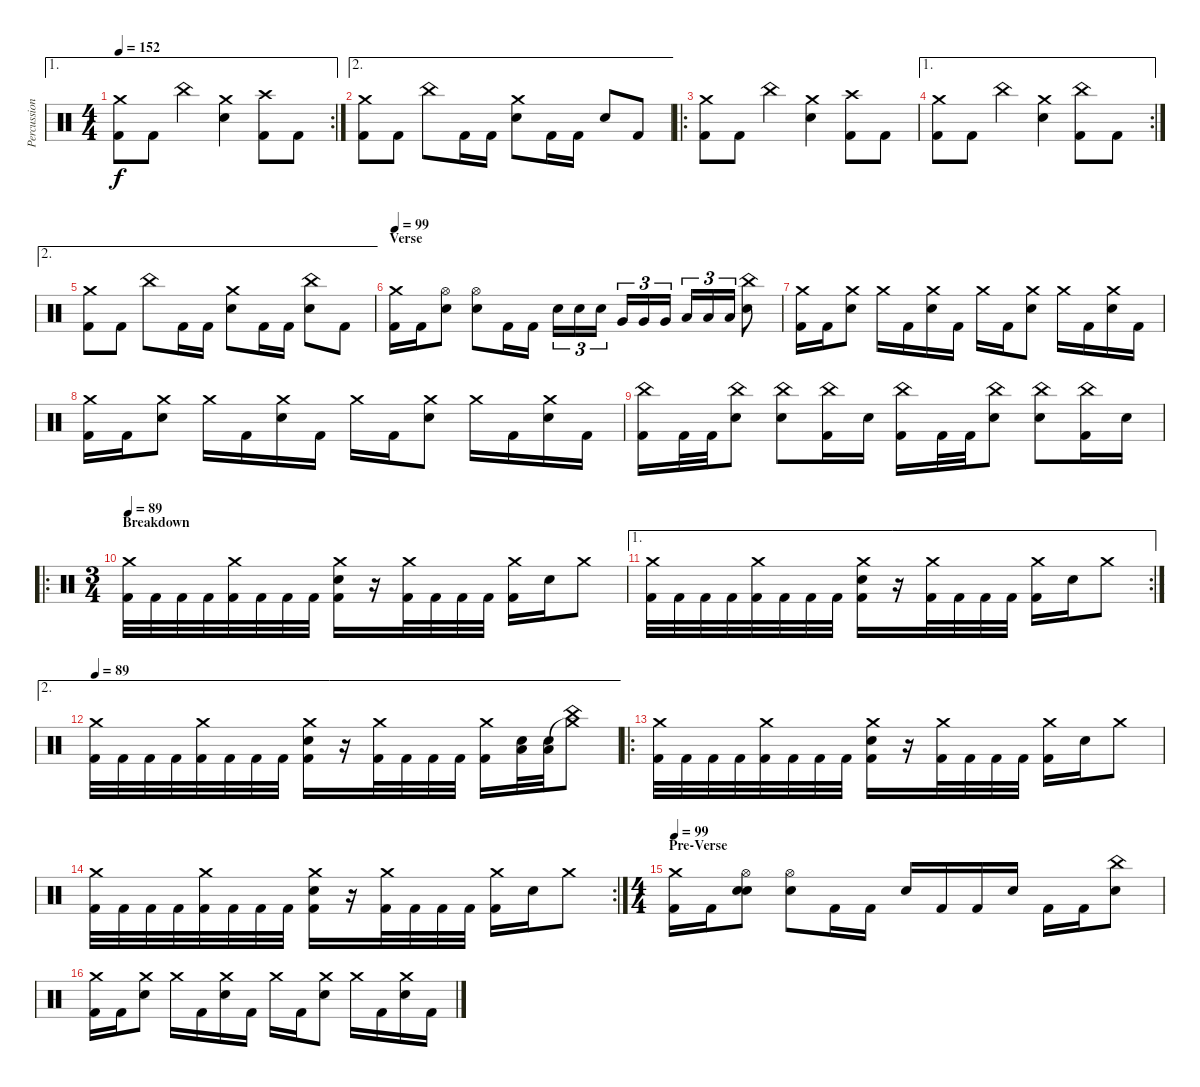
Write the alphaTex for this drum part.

\track ("Percussion" "Percussion") {instrument percussion}
\staff {score}
\articulation defaults
\ae 1
\rc 2
\ts (4 4)
\tempo 152
\clef neutral
\ks c
("Crash medium (hit)" "Kick (hit) 2").8{dy f} "Kick (hit) 2".8 "China (hit)".4 ("Crash medium (hit)" "Electric Snare (hit)").4 ("Crash high (hit)" "Kick (hit) 2").8 "Kick (hit) 2".8 |
\ae 2
("Crash medium (hit)" "Kick (hit) 2").8 "Kick (hit) 2".8 "China (hit)".8 "Kick (hit) 2".16 "Kick (hit) 2".16 ("Crash medium (hit)" "Electric Snare (hit)").8 "Kick (hit) 2".16 "Kick (hit) 2".16 "Electric Snare (hit)".8 "Kick (hit) 2".8 |
\ro
("Crash medium (hit)" "Kick (hit) 2").8 "Kick (hit) 2".8 "China (hit)".4 ("Crash medium (hit)" "Electric Snare (hit)").4 ("Crash high (hit)" "Kick (hit) 2").8 "Kick (hit) 2".8 |
\ae 1
\rc 2
("Crash medium (hit)" "Kick (hit) 2").8 "Kick (hit) 2".8 "China (hit)".4 ("Crash medium (hit)" "Electric Snare (hit)").4 ("China (hit)" "Kick (hit) 2").8 "Kick (hit) 2".8 |
\ae 2
("Crash medium (hit)" "Kick (hit) 2").8 "Kick (hit) 2".8 "China (hit)".8 "Kick (hit) 2".16 "Kick (hit) 2".16 ("Crash medium (hit)" "Electric Snare (hit)").8 "Kick (hit) 2".16 "Kick (hit) 2".16 ("China (hit)" "Electric Snare (hit)").8 "Kick (hit) 2".8 |
\section ("" "Verse")
\tempo 198
\tempo 99
("Crash medium (hit)" "Kick (hit) 2").16 "Kick (hit) 2".16 ("Hi-Hat (open)" "Electric Snare (hit)").8 ("Hi-Hat (open)" "Electric Snare (hit)").8 "Kick (hit) 2".16 "Kick (hit) 2".16 "Electric Snare (hit)".16{tu (3 2)} "Electric Snare (hit)".16{tu (3 2)} "Electric Snare (hit)".16{tu (3 2)} "Very Low Tom (hit)".16{tu (3 2)} "Very Low Tom (hit)".16{tu (3 2)} "Very Low Tom (hit)".16{tu (3 2)} "Low Floor Tom (hit)".16{tu (3 2)} "Low Floor Tom (hit)".16{tu (3 2)} "Low Floor Tom (hit)".16{tu (3 2)} ("China (hit)" "Electric Snare (hit)").8 |
("Crash medium (hit)" "Kick (hit) 2").16 "Kick (hit) 2".16 ("Crash medium (hit)" "Electric Snare (hit)").8 "Crash medium (hit)".16 "Kick (hit) 2".16 ("Crash medium (hit)" "Electric Snare (hit)").16 "Kick (hit) 2".16 "Crash medium (hit)".16 "Kick (hit) 2".16 ("Crash medium (hit)" "Electric Snare (hit)").8 "Crash medium (hit)".16 "Kick (hit) 2".16 ("Crash medium (hit)" "Electric Snare (hit)").16 "Kick (hit) 2".16 |
("Crash medium (hit)" "Kick (hit) 2").16 "Kick (hit) 2".16 ("Crash medium (hit)" "Electric Snare (hit)").8 "Crash medium (hit)".16 "Kick (hit) 2".16 ("Crash medium (hit)" "Electric Snare (hit)").16 "Kick (hit) 2".16 "Crash medium (hit)".16 "Kick (hit) 2".16 ("Crash medium (hit)" "Electric Snare (hit)").8 "Crash medium (hit)".16 "Kick (hit) 2".16 ("Crash medium (hit)" "Electric Snare (hit)").16 "Kick (hit) 2".16 |
("China (hit)" "Kick (hit) 2").16 "Kick (hit) 2".32 "Kick (hit) 2".32 ("China (hit)" "Electric Snare (hit)").8 ("China (hit)" "Electric Snare (hit)").8 ("China (hit)" "Kick (hit) 2").16 "Electric Snare (hit)".16 ("China (hit)" "Kick (hit) 2").16 "Kick (hit) 2".32 "Kick (hit) 2".32 ("China (hit)" "Electric Snare (hit)").8 ("China (hit)" "Electric Snare (hit)").8 ("China (hit)" "Kick (hit) 2").16 "Electric Snare (hit)".16 |
\ro
\ts (3 4)
\section ("" "Breakdown")
\tempo 89
("Crash medium (hit)" "Kick (hit) 2").32 "Kick (hit) 2".32 "Kick (hit) 2".32 "Kick (hit) 2".32 ("Crash medium (hit)" "Kick (hit) 2").32 "Kick (hit) 2".32 "Kick (hit) 2".32 "Kick (hit) 2".32 ("Crash medium (hit)" "Electric Snare (hit)" "Kick (hit) 2").16 r.16 ("Crash medium (hit)" "Kick (hit) 2").32 "Kick (hit) 2".32 "Kick (hit) 2".32 "Kick (hit) 2".32 ("Crash medium (hit)" "Kick (hit) 2").16 "Electric Snare (hit)".16 "Crash medium (hit)".8 |
\ae 1
\rc 2
("Crash medium (hit)" "Kick (hit) 2").32 "Kick (hit) 2".32 "Kick (hit) 2".32 "Kick (hit) 2".32 ("Crash medium (hit)" "Kick (hit) 2").32 "Kick (hit) 2".32 "Kick (hit) 2".32 "Kick (hit) 2".32 ("Crash medium (hit)" "Electric Snare (hit)" "Kick (hit) 2").16 r.16 ("Crash medium (hit)" "Kick (hit) 2").32 "Kick (hit) 2".32 "Kick (hit) 2".32 "Kick (hit) 2".32 ("Crash medium (hit)" "Kick (hit) 2").16 "Electric Snare (hit)".16 "Crash medium (hit)".8 |
\ae 2
\tempo 89
("Crash medium (hit)" "Kick (hit) 2").32 "Kick (hit) 2".32 "Kick (hit) 2".32 "Kick (hit) 2".32 ("Crash medium (hit)" "Kick (hit) 2").32 "Kick (hit) 2".32 "Kick (hit) 2".32 "Kick (hit) 2".32 ("Crash medium (hit)" "Electric Snare (hit)" "Kick (hit) 2").16 r.16 ("Crash medium (hit)" "Kick (hit) 2").32 "Kick (hit) 2".32 "Kick (hit) 2".32 "Kick (hit) 2".32 ("Crash medium (hit)" "Kick (hit) 2").16 ("Low Tom (hit)" "Electric Snare (hit)").32 ("Low Tom (hit)" "Electric Snare (hit)").32 ("Crash medium (hit)"{t} "China (hit)").8 |
\ro
("Crash medium (hit)" "Kick (hit) 2").32 "Kick (hit) 2".32 "Kick (hit) 2".32 "Kick (hit) 2".32 ("Crash medium (hit)" "Kick (hit) 2").32 "Kick (hit) 2".32 "Kick (hit) 2".32 "Kick (hit) 2".32 ("Crash medium (hit)" "Electric Snare (hit)" "Kick (hit) 2").16 r.16 ("Crash medium (hit)" "Kick (hit) 2").32 "Kick (hit) 2".32 "Kick (hit) 2".32 "Kick (hit) 2".32 ("Crash medium (hit)" "Kick (hit) 2").16 "Electric Snare (hit)".16 "Crash medium (hit)".8 |
\rc 2
("Crash medium (hit)" "Kick (hit) 2").32 "Kick (hit) 2".32 "Kick (hit) 2".32 "Kick (hit) 2".32 ("Crash medium (hit)" "Kick (hit) 2").32 "Kick (hit) 2".32 "Kick (hit) 2".32 "Kick (hit) 2".32 ("Crash medium (hit)" "Electric Snare (hit)" "Kick (hit) 2").16 r.16 ("Crash medium (hit)" "Kick (hit) 2").32 "Kick (hit) 2".32 "Kick (hit) 2".32 "Kick (hit) 2".32 ("Crash medium (hit)" "Kick (hit) 2").16 "Electric Snare (hit)".16 "Crash medium (hit)".8 |
\ts (4 4)
\section ("" "Pre-Verse")
\tempo 198
\tempo 99
("Crash medium (hit)" "Kick (hit) 2").16 "Kick (hit) 2".16 ("Hi-Hat (open)" "Electric Snare (hit)" "Electric Snare (hit)").8 ("Hi-Hat (open)" "Electric Snare (hit)").8 "Kick (hit) 2".16 "Kick (hit) 2".16 "Electric Snare (hit)".16 "Kick (hit) 2".16 "Kick (hit) 2".16 "Electric Snare (hit)".16 "Kick (hit) 2".16 "Kick (hit) 2".16 ("China (hit)" "Electric Snare (hit)").8 |
("Crash medium (hit)" "Kick (hit) 2").16 "Kick (hit) 2".16 ("Crash medium (hit)" "Electric Snare (hit)").8 "Crash medium (hit)".16 "Kick (hit) 2".16 ("Crash medium (hit)" "Electric Snare (hit)").16 "Kick (hit) 2".16 "Crash medium (hit)".16 "Kick (hit) 2".16 ("Crash medium (hit)" "Electric Snare (hit)").8 "Crash medium (hit)".16 "Kick (hit) 2".16 ("Crash medium (hit)" "Electric Snare (hit)").16 "Kick (hit) 2".16
